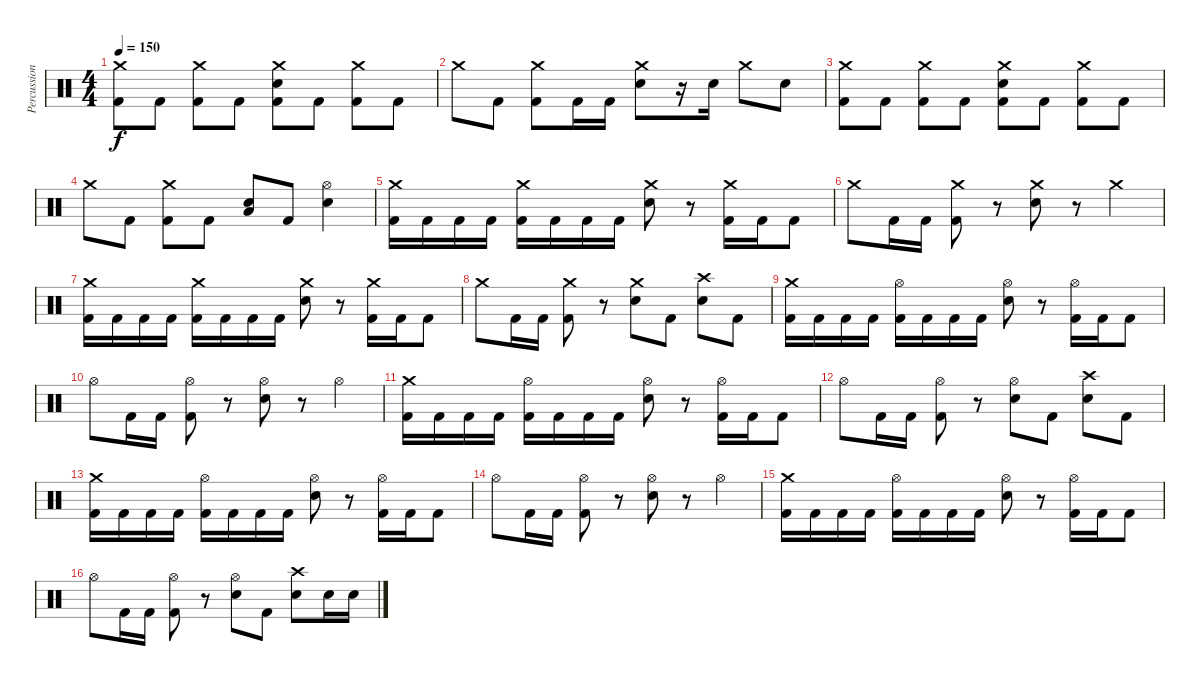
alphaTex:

\track ("Percussion" "Percussion") {instrument percussion}
\staff {score}
\articulation defaults
\ts (4 4)
\tempo 150
\clef neutral
\ks c
("Crash medium (hit)" "Kick (hit) 2").8{dy f} "Kick (hit) 2".8 ("Crash medium (hit)" "Kick (hit) 2").8 "Kick (hit) 2".8 ("Crash medium (hit)" "Snare (hit) 2" "Kick (hit) 2").8 "Kick (hit) 2".8 ("Crash medium (hit)" "Kick (hit) 2").8 "Kick (hit) 2".8 |
"Crash medium (hit)".8 "Kick (hit) 2".8 ("Crash medium (hit)" "Kick (hit) 2").8 "Kick (hit) 2".16 "Kick (hit) 2".16 ("Crash medium (hit)" "Snare (hit) 2").8 r.16 "Snare (hit) 2".16 "Crash medium (hit)".8 "Snare (hit) 2".8 |
("Crash medium (hit)" "Kick (hit) 2").8 "Kick (hit) 2".8 ("Crash medium (hit)" "Kick (hit) 2").8 "Kick (hit) 2".8 ("Crash medium (hit)" "Snare (hit) 2" "Kick (hit) 2").8 "Kick (hit) 2".8 ("Crash medium (hit)" "Kick (hit) 2").8 "Kick (hit) 2".8 |
"Crash medium (hit)".8 "Kick (hit) 2".8 ("Crash medium (hit)" "Kick (hit) 2").8 "Kick (hit) 2".8 ("Low Floor Tom (hit)" "Snare (hit) 2").8 "Kick (hit) 2".8 ("Hi-Hat (open)" "Snare (hit) 2").4 |
("Crash medium (hit)" "Kick (hit) 2").16 "Kick (hit) 2".16 "Kick (hit) 2".16 "Kick (hit) 2".16 ("Crash medium (hit)" "Kick (hit) 2").16 "Kick (hit) 2".16 "Kick (hit) 2".16 "Kick (hit) 2".16 ("Crash medium (hit)" "Snare (hit) 2").8 r.8 ("Crash medium (hit)" "Kick (hit) 2").16 "Kick (hit) 2".16 "Kick (hit) 2".8 |
"Crash medium (hit)".8 "Kick (hit) 2".16 "Kick (hit) 2".16 ("Crash medium (hit)" "Kick (hit) 2").8 r.8 ("Crash medium (hit)" "Snare (hit) 2").8 r.8 "Crash medium (hit)".4 |
("Crash medium (hit)" "Kick (hit) 2").16 "Kick (hit) 2".16 "Kick (hit) 2".16 "Kick (hit) 2".16 ("Crash medium (hit)" "Kick (hit) 2").16 "Kick (hit) 2".16 "Kick (hit) 2".16 "Kick (hit) 2".16 ("Crash medium (hit)" "Snare (hit) 2").8 r.8 ("Crash medium (hit)" "Kick (hit) 2").16 "Kick (hit) 2".16 "Kick (hit) 2".8 |
"Crash medium (hit)".8 "Kick (hit) 2".16 "Kick (hit) 2".16 ("Crash medium (hit)" "Kick (hit) 2").8 r.8 ("Crash medium (hit)" "Snare (hit) 2").8 "Kick (hit) 2".8 ("Crash high (hit)" "Snare (hit) 2").8 "Kick (hit) 2".8 |
("Crash medium (hit)" "Kick (hit) 2").16 "Kick (hit) 2".16 "Kick (hit) 2".16 "Kick (hit) 2".16 ("Hi-Hat (open)" "Kick (hit) 2").16 "Kick (hit) 2".16 "Kick (hit) 2".16 "Kick (hit) 2".16 ("Hi-Hat (open)" "Snare (hit) 2").8 r.8 ("Hi-Hat (open)" "Kick (hit) 2").16 "Kick (hit) 2".16 "Kick (hit) 2".8 |
"Hi-Hat (open)".8 "Kick (hit) 2".16 "Kick (hit) 2".16 ("Hi-Hat (open)" "Kick (hit) 2").8 r.8 ("Hi-Hat (open)" "Snare (hit) 2").8 r.8 "Hi-Hat (open)".4 |
("Crash medium (hit)" "Kick (hit) 2").16 "Kick (hit) 2".16 "Kick (hit) 2".16 "Kick (hit) 2".16 ("Hi-Hat (open)" "Kick (hit) 2").16 "Kick (hit) 2".16 "Kick (hit) 2".16 "Kick (hit) 2".16 ("Hi-Hat (open)" "Snare (hit) 2").8 r.8 ("Hi-Hat (open)" "Kick (hit) 2").16 "Kick (hit) 2".16 "Kick (hit) 2".8 |
"Hi-Hat (open)".8 "Kick (hit) 2".16 "Kick (hit) 2".16 ("Hi-Hat (open)" "Kick (hit) 2").8 r.8 ("Hi-Hat (open)" "Snare (hit) 2").8 "Kick (hit) 2".8 ("Crash high (hit)" "Snare (hit) 2").8 "Kick (hit) 2".8 |
("Crash medium (hit)" "Kick (hit) 2").16 "Kick (hit) 2".16 "Kick (hit) 2".16 "Kick (hit) 2".16 ("Hi-Hat (open)" "Kick (hit) 2").16 "Kick (hit) 2".16 "Kick (hit) 2".16 "Kick (hit) 2".16 ("Hi-Hat (open)" "Snare (hit) 2").8 r.8 ("Hi-Hat (open)" "Kick (hit) 2").16 "Kick (hit) 2".16 "Kick (hit) 2".8 |
"Hi-Hat (open)".8 "Kick (hit) 2".16 "Kick (hit) 2".16 ("Hi-Hat (open)" "Kick (hit) 2").8 r.8 ("Hi-Hat (open)" "Snare (hit) 2").8 r.8 "Hi-Hat (open)".4 |
("Crash medium (hit)" "Kick (hit) 2").16 "Kick (hit) 2".16 "Kick (hit) 2".16 "Kick (hit) 2".16 ("Hi-Hat (open)" "Kick (hit) 2").16 "Kick (hit) 2".16 "Kick (hit) 2".16 "Kick (hit) 2".16 ("Hi-Hat (open)" "Snare (hit) 2").8 r.8 ("Hi-Hat (open)" "Kick (hit) 2").16 "Kick (hit) 2".16 "Kick (hit) 2".8 |
"Hi-Hat (open)".8 "Kick (hit) 2".16 "Kick (hit) 2".16 ("Hi-Hat (open)" "Kick (hit) 2").8 r.8 ("Hi-Hat (open)" "Snare (hit) 2").8 "Kick (hit) 2".8 ("Crash high (hit)" "Snare (hit) 2").8 "Snare (hit) 2".16 "Snare (hit) 2".16
